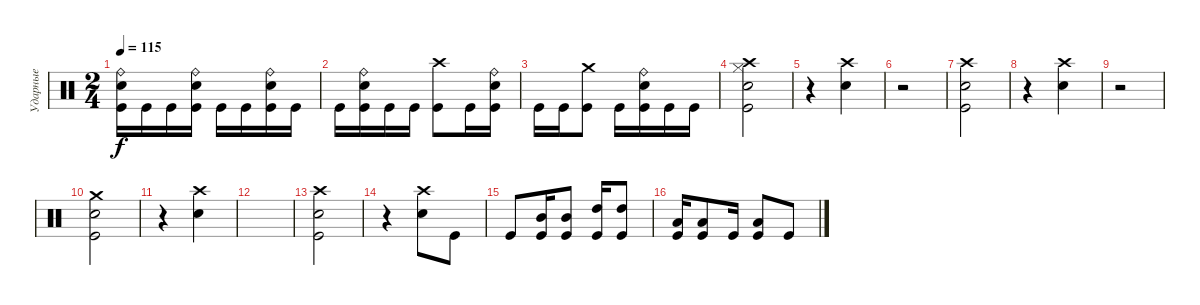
\track ("Ударные" "Ударные") {instrument percussion}
\staff {score}
\articulation defaults
\ts (2 4)
\tempo 115
\clef neutral
\ks c
("Ride (bell)" "Electric Snare (hit)" "Kick (hit)").16{dy f} "Kick (hit)".16 "Kick (hit)".16 ("Ride (bell)" "Electric Snare (hit)" "Kick (hit)").16 "Kick (hit)".16 "Kick (hit)".16 ("Ride (bell)" "Electric Snare (hit)" "Kick (hit)").16 "Kick (hit)".16 |
"Kick (hit)".16 ("Ride (bell)" "Electric Snare (hit)" "Kick (hit)").16 "Kick (hit)".16 "Kick (hit)".16 ("Crash high (hit)" "Kick (hit)").8 "Kick (hit)".16 ("Ride (bell)" "Electric Snare (hit)" "Kick (hit)").16 |
"Kick (hit)".16 "Kick (hit)".16 ("Crash medium (hit)" "Kick (hit)").8 "Kick (hit)".16 ("Ride (bell)" "Electric Snare (hit)" "Kick (hit)").16 "Kick (hit)".16 "Kick (hit)".16 |
("Crash high (hit)" "Hi-Hat (closed)" "Electric Snare (hit)" "Kick (hit)").2 |
r.4 ("Electric Snare (hit)" "Crash high (hit)").4 |
r.2 |
("Crash high (hit)" "Electric Snare (hit)" "Kick (hit)").2 |
r.4 ("Electric Snare (hit)" "Crash high (hit)").4 |
r.2 |
("Crash medium (hit)" "Electric Snare (hit)" "Kick (hit)").2 |
r.4 ("Electric Snare (hit)" "Crash high (hit)").4 |
|
("Crash high (hit)" "Electric Snare (hit)" "Kick (hit)").2 |
r.4 ("Electric Snare (hit)" "Crash high (hit)").8 "Kick (hit)".8 |
"Kick (hit)".8 ("Mid Tom (hit)" "Kick (hit)").16 ("Mid Tom (hit)" "Kick (hit)").8 ("High Tom (hit)" "Kick (hit)").16 ("High Tom (hit)" "Kick (hit)").8 |
("Low Tom (hit)" "Kick (hit)").16 ("Low Tom (hit)" "Kick (hit)").8 "Kick (hit)".16 ("Low Tom (hit)" "Kick (hit)").8 "Kick (hit)".8
